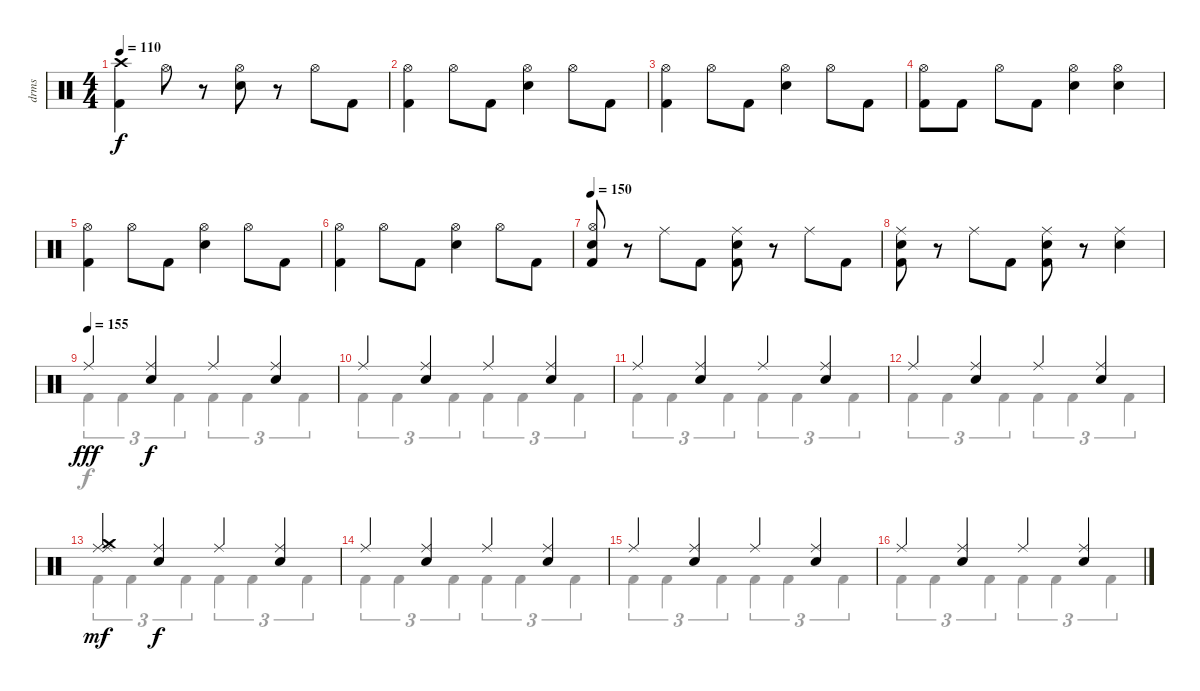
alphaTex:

\track ("drms" "drms") {instrument percussion}
\staff {score}
\articulation defaults
\voice
\ts (4 4)
\tempo 110
\clef neutral
\ks c
("Crash high (hit)" "Kick (hit) 2").4{dy f} "Hi-Hat (open)".8 r.8 ("Hi-Hat (open)" "Snare (hit) 2").8 r.8 "Hi-Hat (open)".8 "Kick (hit) 2".8 |
("Hi-Hat (open)" "Kick (hit) 2").4 "Hi-Hat (open)".8 "Kick (hit) 2".8 ("Hi-Hat (open)" "Snare (hit) 2").4 "Hi-Hat (open)".8 "Kick (hit) 2".8 |
("Hi-Hat (open)" "Kick (hit) 2").4 "Hi-Hat (open)".8 "Kick (hit) 2".8 ("Hi-Hat (open)" "Snare (hit) 2").4 "Hi-Hat (open)".8 "Kick (hit) 2".8 |
("Hi-Hat (open)" "Kick (hit) 2").8 "Kick (hit) 2".8 "Hi-Hat (open)".8 "Kick (hit) 2".8 ("Hi-Hat (open)" "Snare (hit) 2").4 ("Hi-Hat (open)" "Snare (hit) 2").4 |
("Hi-Hat (open)" "Kick (hit) 2").4 "Hi-Hat (open)".8 "Kick (hit) 2".8 ("Hi-Hat (open)" "Snare (hit) 2").4 "Hi-Hat (open)".8 "Kick (hit) 2".8 |
("Hi-Hat (open)" "Kick (hit) 2").4 "Hi-Hat (open)".8 "Kick (hit) 2".8 ("Hi-Hat (open)" "Snare (hit) 2").4 "Hi-Hat (open)".8 "Kick (hit) 2".8 |
\tempo 150
("Hi-Hat (open)" "Snare (hit) 2" "Kick (hit) 2").8 r.8 "Ride (middle)".8 "Kick (hit) 2".8 ("Ride (middle)" "Snare (hit) 2" "Kick (hit) 2").8 r.8 "Ride (middle)".8 "Kick (hit) 2".8 |
("Ride (middle)" "Snare (hit) 2" "Kick (hit) 2").8 r.8 "Ride (middle)".8 "Kick (hit) 2".8 ("Ride (middle)" "Snare (hit) 2" "Kick (hit) 2").8 r.8 ("Ride (middle)" "Snare (hit) 2").4 |
\tempo (155)
"Ride (middle)".4{dy fff} ("Ride (middle)" "Snare (hit) 2").4{dy f} "Ride (middle)".4 ("Ride (middle)" "Snare (hit) 2").4 |
"Ride (middle)".4 ("Ride (middle)" "Snare (hit) 2").4 "Ride (middle)".4 ("Ride (middle)" "Snare (hit) 2").4 |
"Ride (middle)".4 ("Ride (middle)" "Snare (hit) 2").4 "Ride (middle)".4 ("Ride (middle)" "Snare (hit) 2").4 |
"Ride (middle)".4 ("Ride (middle)" "Snare (hit) 2").4 "Ride (middle)".4 ("Ride (middle)" "Snare (hit) 2").4 |
("Ride (middle)" "Ride (middle)" "Crash medium (hit)").4{dy mf} ("Ride (middle)" "Snare (hit) 2").4{dy f} "Ride (middle)".4 ("Ride (middle)" "Snare (hit) 2").4 |
"Ride (middle)".4 ("Ride (middle)" "Snare (hit) 2").4 "Ride (middle)".4 ("Ride (middle)" "Snare (hit) 2").4 |
"Ride (middle)".4 ("Ride (middle)" "Snare (hit) 2").4 "Ride (middle)".4 ("Ride (middle)" "Snare (hit) 2").4 |
"Ride (middle)".4 ("Ride (middle)" "Snare (hit) 2").4 "Ride (middle)".4 ("Ride (middle)" "Snare (hit) 2").4
\voice
\clef neutral
\ottava regular
\simile none
\ks c
|
|
|
|
|
|
|
|
"Kick (hit) 2".4{tu (3 2)} "Kick (hit) 2".4{tu (3 2)} "Kick (hit) 2".4{tu (3 2)} "Kick (hit) 2".4{tu (3 2)} "Kick (hit) 2".4{tu (3 2)} "Kick (hit) 2".4{tu (3 2)} |
"Kick (hit) 2".4{tu (3 2)} "Kick (hit) 2".4{tu (3 2)} "Kick (hit) 2".4{tu (3 2)} "Kick (hit) 2".4{tu (3 2)} "Kick (hit) 2".4{tu (3 2)} "Kick (hit) 2".4{tu (3 2)} |
"Kick (hit) 2".4{tu (3 2)} "Kick (hit) 2".4{tu (3 2)} "Kick (hit) 2".4{tu (3 2)} "Kick (hit) 2".4{tu (3 2)} "Kick (hit) 2".4{tu (3 2)} "Kick (hit) 2".4{tu (3 2)} |
"Kick (hit) 2".4{tu (3 2)} "Kick (hit) 2".4{tu (3 2)} "Kick (hit) 2".4{tu (3 2)} "Kick (hit) 2".4{tu (3 2)} "Kick (hit) 2".4{tu (3 2)} "Kick (hit) 2".4{tu (3 2)} |
"Kick (hit) 2".4{tu (3 2)} "Kick (hit) 2".4{tu (3 2)} "Kick (hit) 2".4{tu (3 2)} "Kick (hit) 2".4{tu (3 2)} "Kick (hit) 2".4{tu (3 2)} "Kick (hit) 2".4{tu (3 2)} |
"Kick (hit) 2".4{tu (3 2)} "Kick (hit) 2".4{tu (3 2)} "Kick (hit) 2".4{tu (3 2)} "Kick (hit) 2".4{tu (3 2)} "Kick (hit) 2".4{tu (3 2)} "Kick (hit) 2".4{tu (3 2)} |
"Kick (hit) 2".4{tu (3 2)} "Kick (hit) 2".4{tu (3 2)} "Kick (hit) 2".4{tu (3 2)} "Kick (hit) 2".4{tu (3 2)} "Kick (hit) 2".4{tu (3 2)} "Kick (hit) 2".4{tu (3 2)} |
"Kick (hit) 2".4{tu (3 2)} "Kick (hit) 2".4{tu (3 2)} "Kick (hit) 2".4{tu (3 2)} "Kick (hit) 2".4{tu (3 2)} "Kick (hit) 2".4{tu (3 2)} "Kick (hit) 2".4{tu (3 2)}
